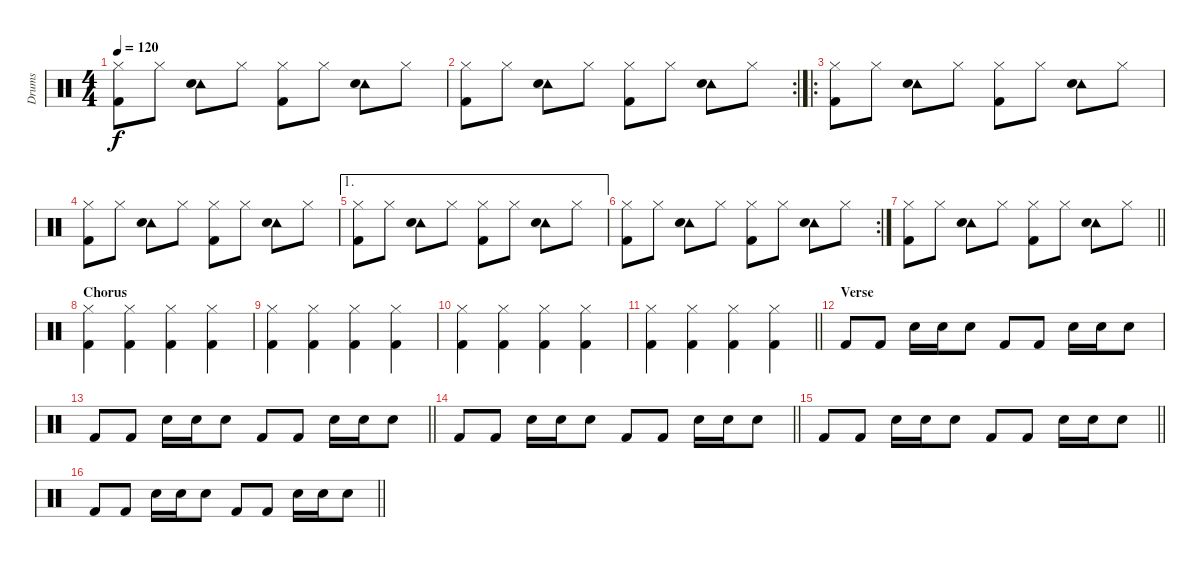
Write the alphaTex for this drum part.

\track ("Drums" "Drums") {instrument percussion}
\staff {score}
\articulation defaults
\ts (4 4)
\tempo 120
\clef neutral
\ks c
("Hi-Hat (closed)" "Kick (hit) 2").8{dy f} "Hi-Hat (closed)".8 ("Tambourine (hit)" "Snare (hit) 2").8 "Hi-Hat (closed)".8 ("Hi-Hat (closed)" "Kick (hit) 2").8 "Hi-Hat (closed)".8 ("Tambourine (hit)" "Snare (hit) 2").8 "Hi-Hat (closed)".8 |
\rc 2
("Hi-Hat (closed)" "Kick (hit) 2").8 "Hi-Hat (closed)".8 ("Tambourine (hit)" "Snare (hit) 2").8 "Hi-Hat (closed)".8 ("Hi-Hat (closed)" "Kick (hit) 2").8 "Hi-Hat (closed)".8 ("Tambourine (hit)" "Snare (hit) 2").8 "Hi-Hat (closed)".8 |
\ro
("Hi-Hat (closed)" "Kick (hit) 2").8 "Hi-Hat (closed)".8 ("Tambourine (hit)" "Snare (hit) 2").8 "Hi-Hat (closed)".8 ("Hi-Hat (closed)" "Kick (hit) 2").8 "Hi-Hat (closed)".8 ("Tambourine (hit)" "Snare (hit) 2").8 "Hi-Hat (closed)".8 |
("Hi-Hat (closed)" "Kick (hit) 2").8 "Hi-Hat (closed)".8 ("Tambourine (hit)" "Snare (hit) 2").8 "Hi-Hat (closed)".8 ("Hi-Hat (closed)" "Kick (hit) 2").8 "Hi-Hat (closed)".8 ("Tambourine (hit)" "Snare (hit) 2").8 "Hi-Hat (closed)".8 |
\ae 1
("Hi-Hat (closed)" "Kick (hit) 2").8 "Hi-Hat (closed)".8 ("Tambourine (hit)" "Snare (hit) 2").8 "Hi-Hat (closed)".8 ("Hi-Hat (closed)" "Kick (hit) 2").8 "Hi-Hat (closed)".8 ("Tambourine (hit)" "Snare (hit) 2").8 "Hi-Hat (closed)".8 |
\rc 2
("Hi-Hat (closed)" "Kick (hit) 2").8 "Hi-Hat (closed)".8 ("Tambourine (hit)" "Snare (hit) 2").8 "Hi-Hat (closed)".8 ("Hi-Hat (closed)" "Kick (hit) 2").8 "Hi-Hat (closed)".8 ("Tambourine (hit)" "Snare (hit) 2").8 "Hi-Hat (closed)".8 |
\barLineRight lightlight
("Hi-Hat (closed)" "Kick (hit) 2").8 "Hi-Hat (closed)".8 ("Tambourine (hit)" "Snare (hit) 2").8 "Hi-Hat (closed)".8 ("Hi-Hat (closed)" "Kick (hit) 2").8 "Hi-Hat (closed)".8 ("Tambourine (hit)" "Snare (hit) 2").8 "Hi-Hat (closed)".8 |
\section ("" "Chorus")
("Hi-Hat (closed)" "Kick (hit) 2").4 ("Hi-Hat (closed)" "Kick (hit) 2").4 ("Hi-Hat (closed)" "Kick (hit) 2").4 ("Hi-Hat (closed)" "Kick (hit) 2").4 |
("Hi-Hat (closed)" "Kick (hit) 2").4 ("Hi-Hat (closed)" "Kick (hit) 2").4 ("Hi-Hat (closed)" "Kick (hit) 2").4 ("Hi-Hat (closed)" "Kick (hit) 2").4 |
("Hi-Hat (closed)" "Kick (hit) 2").4 ("Hi-Hat (closed)" "Kick (hit) 2").4 ("Hi-Hat (closed)" "Kick (hit) 2").4 ("Hi-Hat (closed)" "Kick (hit) 2").4 |
\barLineRight lightlight
("Hi-Hat (closed)" "Kick (hit) 2").4 ("Hi-Hat (closed)" "Kick (hit) 2").4 ("Hi-Hat (closed)" "Kick (hit) 2").4 ("Hi-Hat (closed)" "Kick (hit) 2").4 |
\section ("" "Verse")
"Kick (hit) 2".8 "Kick (hit) 2".8 "Snare (hit) 2".16 "Snare (hit) 2".16 "Snare (hit) 2".8 "Kick (hit) 2".8 "Kick (hit) 2".8 "Snare (hit) 2".16 "Snare (hit) 2".16 "Snare (hit) 2".8 |
\barLineRight lightlight "Kick (hit) 2".8 "Kick (hit) 2".8 "Snare (hit) 2".16 "Snare (hit) 2".16 "Snare (hit) 2".8 "Kick (hit) 2".8 "Kick (hit) 2".8 "Snare (hit) 2".16 "Snare (hit) 2".16 "Snare (hit) 2".8
|
\barLineRight lightlight "Kick (hit) 2".8 "Kick (hit) 2".8 "Snare (hit) 2".16 "Snare (hit) 2".16 "Snare (hit) 2".8 "Kick (hit) 2".8 "Kick (hit) 2".8 "Snare (hit) 2".16 "Snare (hit) 2".16 "Snare (hit) 2".8
|
\barLineRight lightlight "Kick (hit) 2".8 "Kick (hit) 2".8 "Snare (hit) 2".16 "Snare (hit) 2".16 "Snare (hit) 2".8 "Kick (hit) 2".8 "Kick (hit) 2".8 "Snare (hit) 2".16 "Snare (hit) 2".16 "Snare (hit) 2".8
|
\barLineRight lightlight "Kick (hit) 2".8 "Kick (hit) 2".8 "Snare (hit) 2".16 "Snare (hit) 2".16 "Snare (hit) 2".8 "Kick (hit) 2".8 "Kick (hit) 2".8 "Snare (hit) 2".16 "Snare (hit) 2".16 "Snare (hit) 2".8
